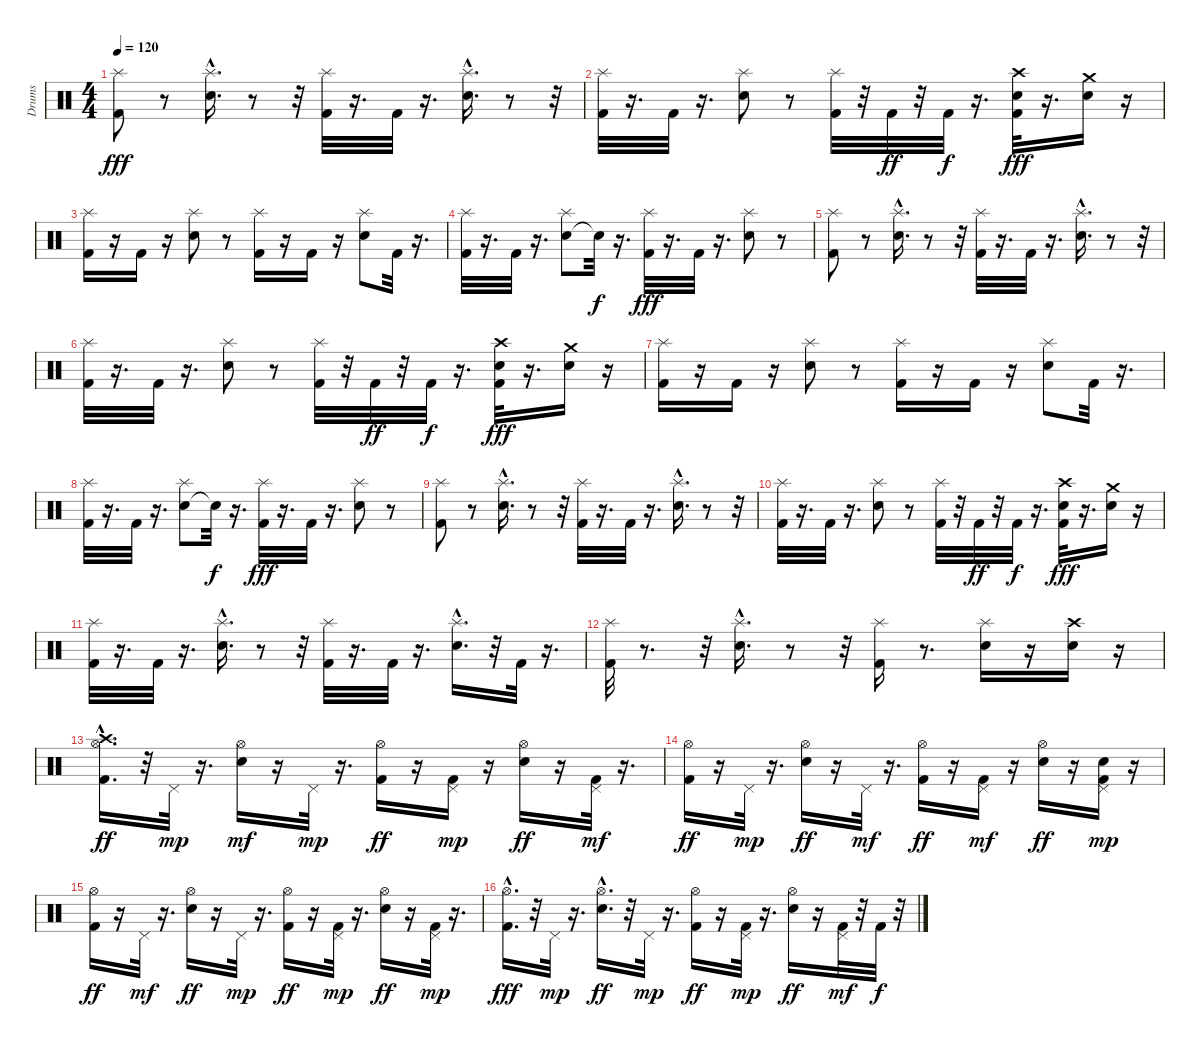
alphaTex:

\track ("Drums" "Drums") {instrument percussion}
\staff {score}
\articulation defaults
\ts (4 4)
\tempo 120
\clef neutral
\ks c
("Kick (hit) 2" "Splash (hit)").8{dy fff} r.8 ("Electric Snare (hit)"{hac} "Splash (hit)").16{d} r.8 r.32 ("Kick (hit) 2" "Splash (hit)").32 r.16{d} "Kick (hit) 2".32 r.16{d} ("Electric Snare (hit)"{hac} "Splash (hit)").16{d} r.8 r.32 |
("Kick (hit) 2" "Splash (hit)").32 r.16{d} "Kick (hit) 2".32 r.16{d} ("Electric Snare (hit)" "Splash (hit)").8 r.8 ("Kick (hit) 2" "Splash (hit)").32 r.32 "Kick (hit) 2".32{dy ff} r.32 "Kick (hit) 2".32{dy f} r.16{d} ("Kick (hit) 2" "Electric Snare (hit)" "Crash high (hit)").32{dy fff} r.16{d} ("Electric Snare (hit)" "Crash medium (hit)").16 r.16 |
("Kick (hit) 2" "Splash (hit)").16 r.16 "Kick (hit) 2".16 r.16 ("Electric Snare (hit)" "Splash (hit)").8 r.8 ("Kick (hit) 2" "Splash (hit)").16 r.16 "Kick (hit) 2".16 r.16 ("Electric Snare (hit)" "Splash (hit)").8 "Kick (hit) 2".32 r.16{d} |
("Kick (hit) 2" "Splash (hit)").32 r.16{d} "Kick (hit) 2".32 r.16{d} ("Electric Snare (hit)" "Splash (hit)").8 "Snare (hit)"{t}.32{dy f} r.16{d} ("Kick (hit) 2" "Splash (hit)").32{dy fff} r.16{d} "Kick (hit) 2".32 r.16{d} ("Electric Snare (hit)" "Splash (hit)").8 r.8 |
("Kick (hit) 2" "Splash (hit)").8 r.8 ("Electric Snare (hit)"{hac} "Splash (hit)").16{d} r.8 r.32 ("Kick (hit) 2" "Splash (hit)").32 r.16{d} "Kick (hit) 2".32 r.16{d} ("Electric Snare (hit)"{hac} "Splash (hit)").16{d} r.8 r.32 |
("Kick (hit) 2" "Splash (hit)").32 r.16{d} "Kick (hit) 2".32 r.16{d} ("Electric Snare (hit)" "Splash (hit)").8 r.8 ("Kick (hit) 2" "Splash (hit)").32 r.32 "Kick (hit) 2".32{dy ff} r.32 "Kick (hit) 2".32{dy f} r.16{d} ("Kick (hit) 2" "Electric Snare (hit)" "Crash high (hit)").32{dy fff} r.16{d} ("Electric Snare (hit)" "Crash medium (hit)").16 r.16 |
("Kick (hit) 2" "Splash (hit)").16 r.16 "Kick (hit) 2".16 r.16 ("Electric Snare (hit)" "Splash (hit)").8 r.8 ("Kick (hit) 2" "Splash (hit)").16 r.16 "Kick (hit) 2".16 r.16 ("Electric Snare (hit)" "Splash (hit)").8 "Kick (hit) 2".32 r.16{d} |
("Kick (hit) 2" "Splash (hit)").32 r.16{d} "Kick (hit) 2".32 r.16{d} ("Electric Snare (hit)" "Splash (hit)").8 "Snare (hit)"{t}.32{dy f} r.16{d} ("Kick (hit) 2" "Splash (hit)").32{dy fff} r.16{d} "Kick (hit) 2".32 r.16{d} ("Electric Snare (hit)" "Splash (hit)").8 r.8 |
("Kick (hit) 2" "Splash (hit)").8 r.8 ("Electric Snare (hit)"{hac} "Splash (hit)").16{d} r.8 r.32 ("Kick (hit) 2" "Splash (hit)").32 r.16{d} "Kick (hit) 2".32 r.16{d} ("Electric Snare (hit)"{hac} "Splash (hit)").16{d} r.8 r.32 |
("Kick (hit) 2" "Splash (hit)").32 r.16{d} "Kick (hit) 2".32 r.16{d} ("Electric Snare (hit)" "Splash (hit)").8 r.8 ("Kick (hit) 2" "Splash (hit)").32 r.32 "Kick (hit) 2".32{dy ff} r.32 "Kick (hit) 2".32{dy f} r.16{d} ("Kick (hit) 2" "Electric Snare (hit)" "Crash high (hit)").32{dy fff} r.16{d} ("Electric Snare (hit)" "Crash medium (hit)").16 r.16 |
("Kick (hit) 2" "Splash (hit)").32 r.16{d} "Kick (hit) 2".32 r.16{d} ("Electric Snare (hit)"{hac} "Splash (hit)").16{d} r.8 r.32 ("Kick (hit) 2" "Splash (hit)").32 r.16{d} "Kick (hit) 2".32 r.16{d} ("Electric Snare (hit)"{hac} "Splash (hit)").16{d} r.32 "Kick (hit) 2".32 r.16{d} |
("Kick (hit) 2" "Splash (hit)").32 r.8{d} r.32 ("Electric Snare (hit)"{hac} "Splash (hit)").16{d} r.8 r.32 ("Kick (hit) 2" "Splash (hit)").16 r.8{d} ("Electric Snare (hit)" "Splash (hit)").16 r.16 ("Electric Snare (hit)" "Crash high (hit)").16 r.16 |
("Kick (hit) 2" "Crash high (hit)" "Hi-Hat (open)"{hac}).16{d dy ff} r.32 "Pedal Hi-Hat (hit)".32{dy mp} r.16{d} ("Electric Snare (hit)" "Hi-Hat (open)").16{dy mf} r.16 "Pedal Hi-Hat (hit)".32{dy mp} r.16{d} ("Kick (hit) 2" "Hi-Hat (open)").16{dy ff} r.16 ("Kick (hit) 2" "Pedal Hi-Hat (hit)").16{dy mp} r.16 ("Electric Snare (hit)" "Hi-Hat (open)").16{dy ff} r.16 ("Kick (hit) 2" "Pedal Hi-Hat (hit)").32{dy mf} r.16{d} |
("Kick (hit) 2" "Hi-Hat (open)").16{dy ff} r.16 "Pedal Hi-Hat (hit)".32{dy mp} r.16{d} ("Electric Snare (hit)" "Hi-Hat (open)").16{dy ff} r.16 "Pedal Hi-Hat (hit)".32{dy mf} r.16{d} ("Kick (hit) 2" "Hi-Hat (open)").16{dy ff} r.16 ("Kick (hit) 2" "Pedal Hi-Hat (hit)").16{dy mf} r.16 ("Electric Snare (hit)" "Hi-Hat (open)").16{dy ff} r.16 ("Kick (hit) 2" "Electric Snare (hit)" "Pedal Hi-Hat (hit)").16{dy mp} r.16 |
("Kick (hit) 2" "Hi-Hat (open)").16{dy ff} r.16 "Pedal Hi-Hat (hit)".32{dy mf} r.16{d} ("Electric Snare (hit)" "Hi-Hat (open)").16{dy ff} r.16 "Pedal Hi-Hat (hit)".32{dy mp} r.16{d} ("Kick (hit) 2" "Hi-Hat (open)").16{dy ff} r.16 ("Kick (hit) 2" "Pedal Hi-Hat (hit)").32{dy mp} r.16{d} ("Electric Snare (hit)" "Hi-Hat (open)").16{dy ff} r.16 ("Kick (hit) 2" "Pedal Hi-Hat (hit)").32{dy mp} r.16{d} |
("Kick (hit) 2" "Hi-Hat (open)"{hac}).16{d dy fff} r.32 "Pedal Hi-Hat (hit)".32{dy mp} r.16{d} ("Electric Snare (hit)"{hac} "Hi-Hat (open)").16{d dy ff} r.32 "Pedal Hi-Hat (hit)".32{dy mp} r.16{d} ("Kick (hit) 2" "Hi-Hat (open)").16{dy ff} r.16 ("Kick (hit) 2" "Pedal Hi-Hat (hit)").32{dy mp} r.16{d} ("Electric Snare (hit)" "Hi-Hat (open)").16{dy ff} r.16 ("Kick (hit) 2" "Pedal Hi-Hat (hit)").32{dy mf} r.32 "Kick (hit) 2".32{dy f} r.32
